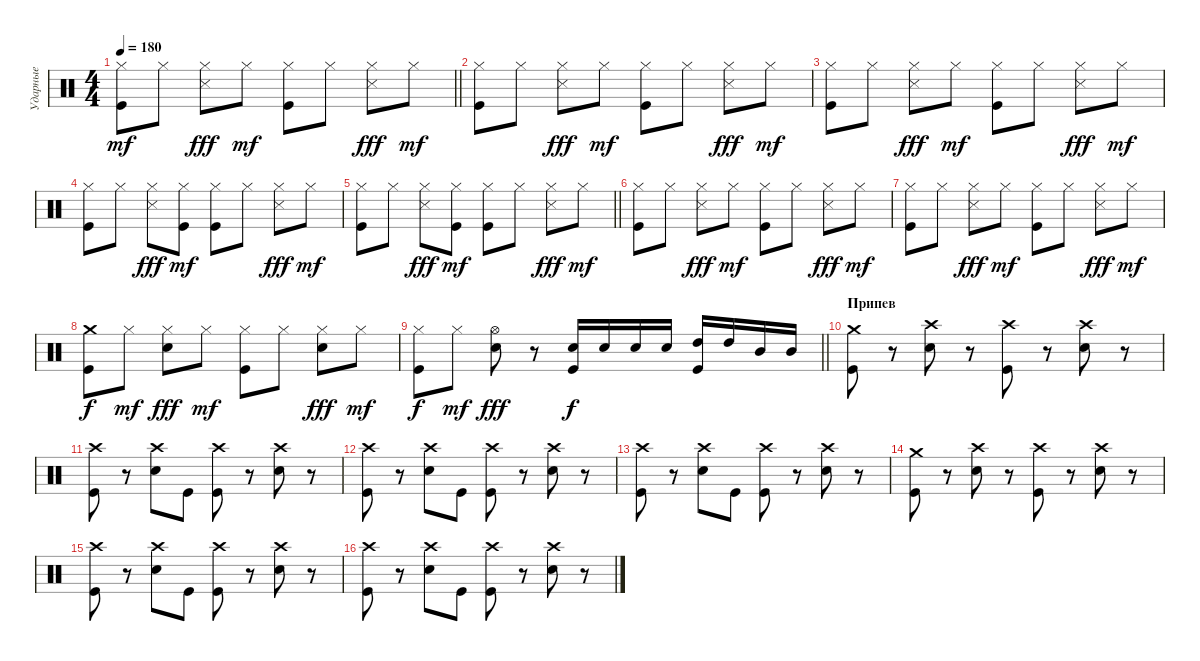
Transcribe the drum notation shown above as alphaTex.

\track ("Ударные" "Ударные") {instrument percussion}
\staff {score}
\articulation defaults
\ts (4 4)
\tempo 180
\clef neutral
\barLineRight lightlight
\ks c
("Hi-Hat (closed)" "Kick (hit)").8{dy mf} "Hi-Hat (closed)".8 ("Hi-Hat (closed)" "Metronome (hit)").8{dy fff} "Hi-Hat (closed)".8{dy mf} ("Hi-Hat (closed)" "Kick (hit)").8 "Hi-Hat (closed)".8 ("Hi-Hat (closed)" "Metronome (hit)").8{dy fff} "Hi-Hat (closed)".8{dy mf} |
("Hi-Hat (closed)" "Kick (hit)").8 "Hi-Hat (closed)".8 ("Hi-Hat (closed)" "Metronome (hit)").8{dy fff} "Hi-Hat (closed)".8{dy mf} ("Hi-Hat (closed)" "Kick (hit)").8 "Hi-Hat (closed)".8 ("Hi-Hat (closed)" "Metronome (hit)").8{dy fff} "Hi-Hat (closed)".8{dy mf} |
("Hi-Hat (closed)" "Kick (hit)").8 "Hi-Hat (closed)".8 ("Hi-Hat (closed)" "Metronome (hit)").8{dy fff} "Hi-Hat (closed)".8{dy mf} ("Hi-Hat (closed)" "Kick (hit)").8 "Hi-Hat (closed)".8 ("Hi-Hat (closed)" "Metronome (hit)").8{dy fff} "Hi-Hat (closed)".8{dy mf} |
("Hi-Hat (closed)" "Kick (hit)").8 "Hi-Hat (closed)".8 ("Hi-Hat (closed)" "Metronome (hit)").8{dy fff} ("Hi-Hat (closed)" "Kick (hit)").8{dy mf} ("Hi-Hat (closed)" "Kick (hit)").8 "Hi-Hat (closed)".8 ("Hi-Hat (closed)" "Metronome (hit)").8{dy fff} "Hi-Hat (closed)".8{dy mf} |
\barLineRight lightlight
("Hi-Hat (closed)" "Kick (hit)").8 "Hi-Hat (closed)".8 ("Hi-Hat (closed)" "Metronome (hit)").8{dy fff} ("Hi-Hat (closed)" "Kick (hit)").8{dy mf} ("Hi-Hat (closed)" "Kick (hit)").8 "Hi-Hat (closed)".8 ("Hi-Hat (closed)" "Metronome (hit)").8{dy fff} "Hi-Hat (closed)".8{dy mf} |
("Hi-Hat (closed)" "Kick (hit)").8 "Hi-Hat (closed)".8 ("Hi-Hat (closed)" "Metronome (hit)").8{dy fff} "Hi-Hat (closed)".8{dy mf} ("Hi-Hat (closed)" "Kick (hit)").8 "Hi-Hat (closed)".8 ("Hi-Hat (closed)" "Metronome (hit)").8{dy fff} "Hi-Hat (closed)".8{dy mf} |
("Hi-Hat (closed)" "Kick (hit)").8 "Hi-Hat (closed)".8 ("Hi-Hat (closed)" "Metronome (hit)").8{dy fff} "Hi-Hat (closed)".8{dy mf} ("Hi-Hat (closed)" "Kick (hit)").8 "Hi-Hat (closed)".8 ("Hi-Hat (closed)" "Metronome (hit)").8{dy fff} "Hi-Hat (closed)".8{dy mf} |
("Crash medium (hit)" "Kick (hit)").8{dy f} "Hi-Hat (closed)".8{dy mf} ("Hi-Hat (closed)" "Electric Snare (hit)").8{dy fff} "Hi-Hat (closed)".8{dy mf} ("Hi-Hat (closed)" "Kick (hit)").8 "Hi-Hat (closed)".8 ("Hi-Hat (closed)" "Electric Snare (hit)").8{dy fff} "Hi-Hat (closed)".8{dy mf} |
\barLineRight lightlight
("Hi-Hat (closed)" "Kick (hit)").8{dy f} "Hi-Hat (closed)".8{dy mf} ("Hi-Hat (open)" "Electric Snare (hit)").8{dy fff} r.8 ("Electric Snare (hit)" "Kick (hit)").16{dy f} "Electric Snare (hit)".16 "Electric Snare (hit)".16 "Electric Snare (hit)".16 ("High Tom (hit)" "Kick (hit)").16 "High Tom (hit)".16 "Mid Tom (hit)".16 "Mid Tom (hit)".16 |
\section ("" "Припев")
("Crash medium (hit)" "Kick (hit)").8 r.8 ("Crash high (hit)" "Electric Snare (hit)").8 r.8 ("Crash high (hit)" "Kick (hit)").8 r.8 ("Crash high (hit)" "Electric Snare (hit)").8 r.8 |
("Crash high (hit)" "Kick (hit)").8 r.8 ("Crash high (hit)" "Electric Snare (hit)").8 "Kick (hit)".8 ("Crash high (hit)" "Kick (hit)").8 r.8 ("Crash high (hit)" "Electric Snare (hit)").8 r.8 |
("Crash high (hit)" "Kick (hit)").8 r.8 ("Crash high (hit)" "Electric Snare (hit)").8 "Kick (hit)".8 ("Crash high (hit)" "Kick (hit)").8 r.8 ("Crash high (hit)" "Electric Snare (hit)").8 r.8 |
("Crash high (hit)" "Kick (hit)").8 r.8 ("Crash high (hit)" "Electric Snare (hit)").8 "Kick (hit)".8 ("Crash high (hit)" "Kick (hit)").8 r.8 ("Crash high (hit)" "Electric Snare (hit)").8 r.8 |
("Crash medium (hit)" "Kick (hit)").8 r.8 ("Crash high (hit)" "Electric Snare (hit)").8 r.8 ("Crash high (hit)" "Kick (hit)").8 r.8 ("Crash high (hit)" "Electric Snare (hit)").8 r.8 |
("Crash high (hit)" "Kick (hit)").8 r.8 ("Crash high (hit)" "Electric Snare (hit)").8 "Kick (hit)".8 ("Crash high (hit)" "Kick (hit)").8 r.8 ("Crash high (hit)" "Electric Snare (hit)").8 r.8 |
("Crash high (hit)" "Kick (hit)").8 r.8 ("Crash high (hit)" "Electric Snare (hit)").8 "Kick (hit)".8 ("Crash high (hit)" "Kick (hit)").8 r.8 ("Crash high (hit)" "Electric Snare (hit)").8 r.8
